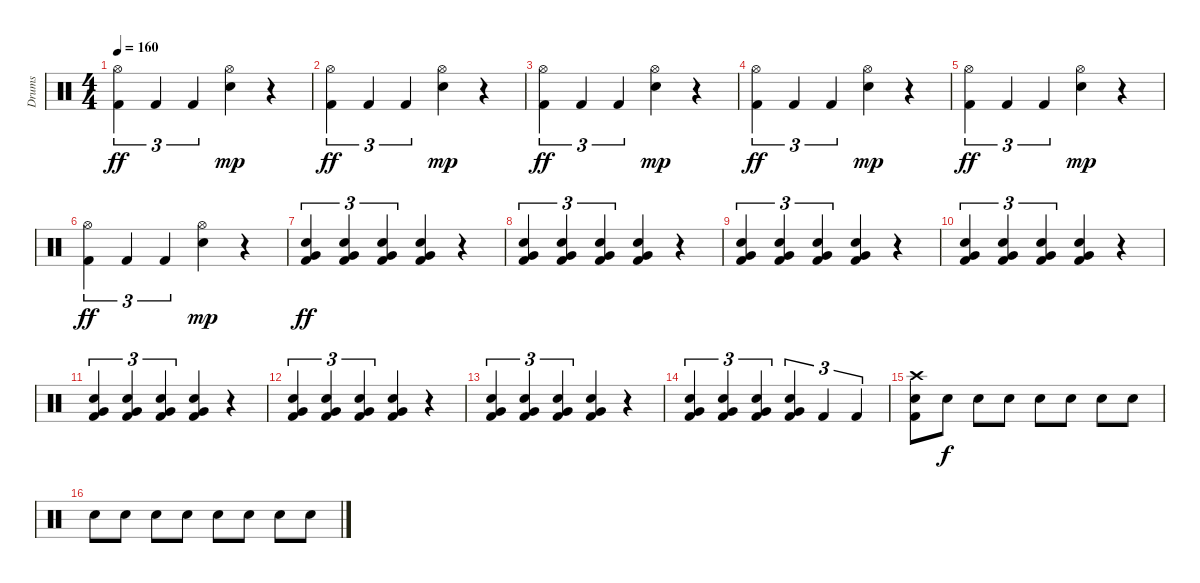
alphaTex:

\track ("Drums" "Drums") {instrument percussion}
\staff {score}
\articulation defaults
\ts (4 4)
\tempo 160
\clef neutral
\ks c
("Hi-Hat (open)" "Kick (hit) 2").4{tu (3 2) dy ff} "Kick (hit) 2".4{tu (3 2)} "Kick (hit) 2".4{tu (3 2)} ("Hi-Hat (open)" "Electric Snare (hit)").4{dy mp} r.4 |
("Hi-Hat (open)" "Kick (hit) 2").4{tu (3 2) dy ff} "Kick (hit) 2".4{tu (3 2)} "Kick (hit) 2".4{tu (3 2)} ("Hi-Hat (open)" "Electric Snare (hit)").4{dy mp} r.4 |
("Hi-Hat (open)" "Kick (hit) 2").4{tu (3 2) dy ff} "Kick (hit) 2".4{tu (3 2)} "Kick (hit) 2".4{tu (3 2)} ("Hi-Hat (open)" "Electric Snare (hit)").4{dy mp} r.4 |
("Hi-Hat (open)" "Kick (hit) 2").4{tu (3 2) dy ff} "Kick (hit) 2".4{tu (3 2)} "Kick (hit) 2".4{tu (3 2)} ("Hi-Hat (open)" "Electric Snare (hit)").4{dy mp} r.4 |
("Hi-Hat (open)" "Kick (hit) 2").4{tu (3 2) dy ff} "Kick (hit) 2".4{tu (3 2)} "Kick (hit) 2".4{tu (3 2)} ("Hi-Hat (open)" "Electric Snare (hit)").4{dy mp} r.4 |
("Hi-Hat (open)" "Kick (hit) 2").4{tu (3 2) dy ff} "Kick (hit) 2".4{tu (3 2)} "Kick (hit) 2".4{tu (3 2)} ("Hi-Hat (open)" "Electric Snare (hit)").4{dy mp} r.4 |
("Very Low Tom (hit)" "Electric Snare (hit)" "Kick (hit) 2").4{tu (3 2) dy ff} ("Very Low Tom (hit)" "Electric Snare (hit)" "Kick (hit) 2").4{tu (3 2)} ("Very Low Tom (hit)" "Electric Snare (hit)" "Kick (hit) 2").4{tu (3 2)} ("Very Low Tom (hit)" "Electric Snare (hit)" "Kick (hit) 2").4 r.4 |
("Very Low Tom (hit)" "Electric Snare (hit)" "Kick (hit) 2").4{tu (3 2)} ("Very Low Tom (hit)" "Electric Snare (hit)" "Kick (hit) 2").4{tu (3 2)} ("Very Low Tom (hit)" "Electric Snare (hit)" "Kick (hit) 2").4{tu (3 2)} ("Very Low Tom (hit)" "Electric Snare (hit)" "Kick (hit) 2").4 r.4 |
("Very Low Tom (hit)" "Electric Snare (hit)" "Kick (hit) 2").4{tu (3 2)} ("Very Low Tom (hit)" "Electric Snare (hit)" "Kick (hit) 2").4{tu (3 2)} ("Very Low Tom (hit)" "Electric Snare (hit)" "Kick (hit) 2").4{tu (3 2)} ("Very Low Tom (hit)" "Electric Snare (hit)" "Kick (hit) 2").4 r.4 |
("Very Low Tom (hit)" "Electric Snare (hit)" "Kick (hit) 2").4{tu (3 2)} ("Very Low Tom (hit)" "Electric Snare (hit)" "Kick (hit) 2").4{tu (3 2)} ("Very Low Tom (hit)" "Electric Snare (hit)" "Kick (hit) 2").4{tu (3 2)} ("Very Low Tom (hit)" "Electric Snare (hit)" "Kick (hit) 2").4 r.4 |
("Very Low Tom (hit)" "Electric Snare (hit)" "Kick (hit) 2").4{tu (3 2)} ("Very Low Tom (hit)" "Electric Snare (hit)" "Kick (hit) 2").4{tu (3 2)} ("Very Low Tom (hit)" "Electric Snare (hit)" "Kick (hit) 2").4{tu (3 2)} ("Very Low Tom (hit)" "Electric Snare (hit)" "Kick (hit) 2").4 r.4 |
("Very Low Tom (hit)" "Electric Snare (hit)" "Kick (hit) 2").4{tu (3 2)} ("Very Low Tom (hit)" "Electric Snare (hit)" "Kick (hit) 2").4{tu (3 2)} ("Very Low Tom (hit)" "Electric Snare (hit)" "Kick (hit) 2").4{tu (3 2)} ("Very Low Tom (hit)" "Electric Snare (hit)" "Kick (hit) 2").4 r.4 |
("Very Low Tom (hit)" "Electric Snare (hit)" "Kick (hit) 2").4{tu (3 2)} ("Very Low Tom (hit)" "Electric Snare (hit)" "Kick (hit) 2").4{tu (3 2)} ("Very Low Tom (hit)" "Electric Snare (hit)" "Kick (hit) 2").4{tu (3 2)} ("Very Low Tom (hit)" "Electric Snare (hit)" "Kick (hit) 2").4 r.4 |
("Very Low Tom (hit)" "Electric Snare (hit)" "Kick (hit) 2").4{tu (3 2)} ("Very Low Tom (hit)" "Electric Snare (hit)" "Kick (hit) 2").4{tu (3 2)} ("Very Low Tom (hit)" "Electric Snare (hit)" "Kick (hit) 2").4{tu (3 2)} ("Very Low Tom (hit)" "Electric Snare (hit)" "Kick (hit) 2").4{tu (3 2)} "Kick (hit) 2".4{tu (3 2)} "Kick (hit) 2".4{tu (3 2)} |
("Crash high (hit)" "Electric Snare (hit)" "Kick (hit) 2").8 "Electric Snare (hit)".8{dy f} "Electric Snare (hit)".8 "Electric Snare (hit)".8 "Electric Snare (hit)".8 "Electric Snare (hit)".8 "Electric Snare (hit)".8 "Electric Snare (hit)".8 |
"Electric Snare (hit)".8 "Electric Snare (hit)".8 "Electric Snare (hit)".8 "Electric Snare (hit)".8 "Electric Snare (hit)".8 "Electric Snare (hit)".8 "Electric Snare (hit)".8 "Electric Snare (hit)".8
